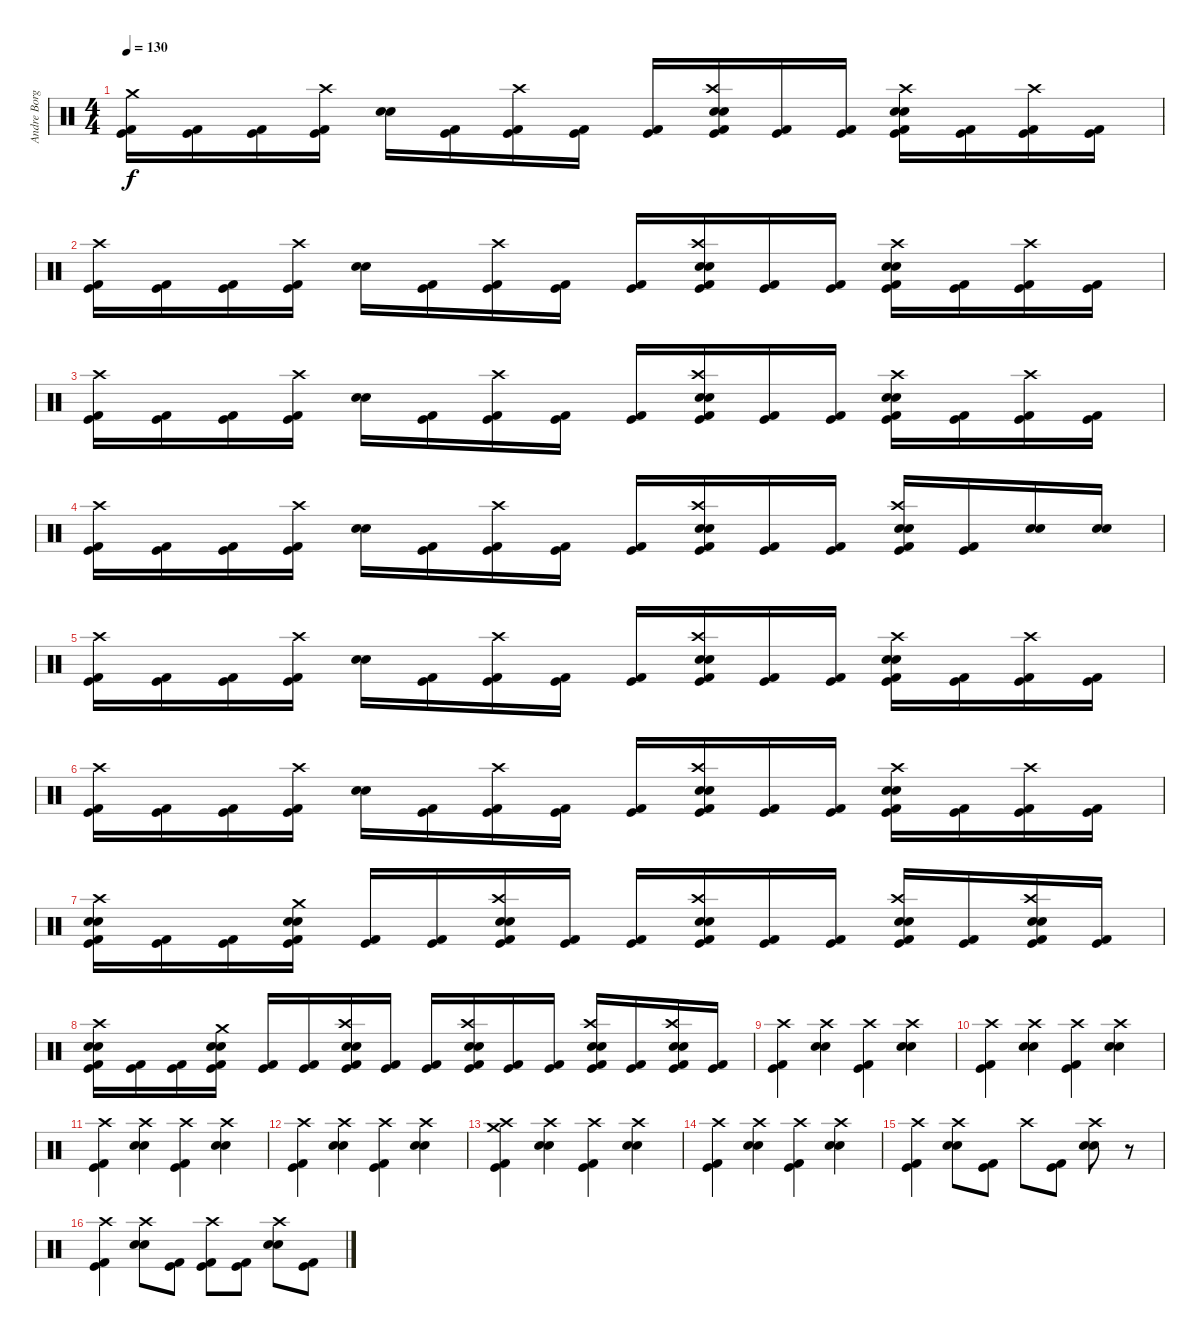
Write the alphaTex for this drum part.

\track ("Andre Borgman" "Andre Borg") {instrument percussion}
\staff {score}
\articulation defaults
\ts (4 4)
\tempo 130
\clef neutral
\ks c
("Crash medium (hit)" "Kick (hit)" "Kick (hit) 2").16{dy f} ("Kick (hit)" "Kick (hit) 2").16 ("Kick (hit)" "Kick (hit) 2").16 ("Crash high (hit)" "Kick (hit)" "Kick (hit) 2").16 ("Electric Snare (hit)" "Snare (hit) 2").16 ("Kick (hit)" "Kick (hit) 2").16 ("Crash high (hit)" "Kick (hit)" "Kick (hit) 2").16 ("Kick (hit)" "Kick (hit) 2").16 ("Kick (hit)" "Kick (hit) 2").16 ("Crash high (hit)" "Kick (hit)" "Kick (hit) 2" "Electric Snare (hit)" "Snare (hit) 2").16 ("Kick (hit)" "Kick (hit) 2").16 ("Kick (hit)" "Kick (hit) 2").16 ("Crash high (hit)" "Kick (hit)" "Kick (hit) 2" "Electric Snare (hit)" "Snare (hit) 2").16 ("Kick (hit)" "Kick (hit) 2").16 ("Crash high (hit)" "Kick (hit)" "Kick (hit) 2").16 ("Kick (hit)" "Kick (hit) 2").16 |
("Crash high (hit)" "Kick (hit)" "Kick (hit) 2").16 ("Kick (hit)" "Kick (hit) 2").16 ("Kick (hit)" "Kick (hit) 2").16 ("Crash high (hit)" "Kick (hit)" "Kick (hit) 2").16 ("Electric Snare (hit)" "Snare (hit) 2").16 ("Kick (hit)" "Kick (hit) 2").16 ("Crash high (hit)" "Kick (hit)" "Kick (hit) 2").16 ("Kick (hit)" "Kick (hit) 2").16 ("Kick (hit)" "Kick (hit) 2").16 ("Crash high (hit)" "Kick (hit)" "Kick (hit) 2" "Electric Snare (hit)" "Snare (hit) 2").16 ("Kick (hit)" "Kick (hit) 2").16 ("Kick (hit)" "Kick (hit) 2").16 ("Crash high (hit)" "Kick (hit)" "Kick (hit) 2" "Electric Snare (hit)" "Snare (hit) 2").16 ("Kick (hit)" "Kick (hit) 2").16 ("Crash high (hit)" "Kick (hit)" "Kick (hit) 2").16 ("Kick (hit)" "Kick (hit) 2").16 |
("Crash high (hit)" "Kick (hit)" "Kick (hit) 2").16 ("Kick (hit)" "Kick (hit) 2").16 ("Kick (hit)" "Kick (hit) 2").16 ("Crash high (hit)" "Kick (hit)" "Kick (hit) 2").16 ("Electric Snare (hit)" "Snare (hit) 2").16 ("Kick (hit)" "Kick (hit) 2").16 ("Crash high (hit)" "Kick (hit)" "Kick (hit) 2").16 ("Kick (hit)" "Kick (hit) 2").16 ("Kick (hit)" "Kick (hit) 2").16 ("Crash high (hit)" "Kick (hit)" "Kick (hit) 2" "Electric Snare (hit)" "Snare (hit) 2").16 ("Kick (hit)" "Kick (hit) 2").16 ("Kick (hit)" "Kick (hit) 2").16 ("Crash high (hit)" "Kick (hit)" "Kick (hit) 2" "Electric Snare (hit)" "Snare (hit) 2").16 ("Kick (hit)" "Kick (hit) 2").16 ("Crash high (hit)" "Kick (hit)" "Kick (hit) 2").16 ("Kick (hit)" "Kick (hit) 2").16 |
("Crash high (hit)" "Kick (hit)" "Kick (hit) 2").16 ("Kick (hit)" "Kick (hit) 2").16 ("Kick (hit)" "Kick (hit) 2").16 ("Crash high (hit)" "Kick (hit)" "Kick (hit) 2").16 ("Electric Snare (hit)" "Snare (hit) 2").16 ("Kick (hit)" "Kick (hit) 2").16 ("Crash high (hit)" "Kick (hit)" "Kick (hit) 2").16 ("Kick (hit)" "Kick (hit) 2").16 ("Kick (hit)" "Kick (hit) 2").16 ("Crash high (hit)" "Kick (hit)" "Kick (hit) 2" "Electric Snare (hit)" "Snare (hit) 2").16 ("Kick (hit)" "Kick (hit) 2").16 ("Kick (hit)" "Kick (hit) 2").16 ("Crash high (hit)" "Kick (hit)" "Kick (hit) 2" "Electric Snare (hit)" "Snare (hit) 2").16 ("Kick (hit)" "Kick (hit) 2").16 ("Electric Snare (hit)" "Snare (hit) 2").16 ("Electric Snare (hit)" "Snare (hit) 2").16 |
("Crash high (hit)" "Kick (hit)" "Kick (hit) 2").16 ("Kick (hit)" "Kick (hit) 2").16 ("Kick (hit)" "Kick (hit) 2").16 ("Crash high (hit)" "Kick (hit)" "Kick (hit) 2").16 ("Electric Snare (hit)" "Snare (hit) 2").16 ("Kick (hit)" "Kick (hit) 2").16 ("Crash high (hit)" "Kick (hit)" "Kick (hit) 2").16 ("Kick (hit)" "Kick (hit) 2").16 ("Kick (hit)" "Kick (hit) 2").16 ("Crash high (hit)" "Kick (hit)" "Kick (hit) 2" "Electric Snare (hit)" "Snare (hit) 2").16 ("Kick (hit)" "Kick (hit) 2").16 ("Kick (hit)" "Kick (hit) 2").16 ("Crash high (hit)" "Kick (hit)" "Kick (hit) 2" "Electric Snare (hit)" "Snare (hit) 2").16 ("Kick (hit)" "Kick (hit) 2").16 ("Crash high (hit)" "Kick (hit)" "Kick (hit) 2").16 ("Kick (hit)" "Kick (hit) 2").16 |
("Crash high (hit)" "Kick (hit)" "Kick (hit) 2").16 ("Kick (hit)" "Kick (hit) 2").16 ("Kick (hit)" "Kick (hit) 2").16 ("Crash high (hit)" "Kick (hit)" "Kick (hit) 2").16 ("Electric Snare (hit)" "Snare (hit) 2").16 ("Kick (hit)" "Kick (hit) 2").16 ("Crash high (hit)" "Kick (hit)" "Kick (hit) 2").16 ("Kick (hit)" "Kick (hit) 2").16 ("Kick (hit)" "Kick (hit) 2").16 ("Crash high (hit)" "Kick (hit)" "Kick (hit) 2" "Electric Snare (hit)" "Snare (hit) 2").16 ("Kick (hit)" "Kick (hit) 2").16 ("Kick (hit)" "Kick (hit) 2").16 ("Crash high (hit)" "Kick (hit)" "Kick (hit) 2" "Electric Snare (hit)" "Snare (hit) 2").16 ("Kick (hit)" "Kick (hit) 2").16 ("Crash high (hit)" "Kick (hit)" "Kick (hit) 2").16 ("Kick (hit)" "Kick (hit) 2").16 |
("Crash high (hit)" "Kick (hit)" "Kick (hit) 2" "Electric Snare (hit)" "Snare (hit) 2").16 ("Kick (hit)" "Kick (hit) 2").16 ("Kick (hit)" "Kick (hit) 2").16 ("Crash medium (hit)" "Kick (hit)" "Kick (hit) 2" "Electric Snare (hit)" "Snare (hit) 2").16 ("Kick (hit)" "Kick (hit) 2").16 ("Kick (hit)" "Kick (hit) 2").16 ("Crash high (hit)" "Kick (hit)" "Kick (hit) 2" "Electric Snare (hit)" "Snare (hit) 2").16 ("Kick (hit)" "Kick (hit) 2").16 ("Kick (hit)" "Kick (hit) 2").16 ("Crash high (hit)" "Kick (hit)" "Kick (hit) 2" "Electric Snare (hit)" "Snare (hit) 2").16 ("Kick (hit)" "Kick (hit) 2").16 ("Kick (hit)" "Kick (hit) 2").16 ("Crash high (hit)" "Kick (hit)" "Kick (hit) 2" "Electric Snare (hit)" "Snare (hit) 2").16 ("Kick (hit)" "Kick (hit) 2").16 ("Crash high (hit)" "Kick (hit)" "Kick (hit) 2" "Electric Snare (hit)" "Snare (hit) 2").16 ("Kick (hit)" "Kick (hit) 2").16 |
("Crash high (hit)" "Kick (hit)" "Kick (hit) 2" "Electric Snare (hit)" "Snare (hit) 2").16 ("Kick (hit)" "Kick (hit) 2").16 ("Kick (hit)" "Kick (hit) 2").16 ("Crash medium (hit)" "Kick (hit)" "Kick (hit) 2" "Electric Snare (hit)" "Snare (hit) 2").16 ("Kick (hit)" "Kick (hit) 2").16 ("Kick (hit)" "Kick (hit) 2").16 ("Crash high (hit)" "Kick (hit)" "Kick (hit) 2" "Electric Snare (hit)" "Snare (hit) 2").16 ("Kick (hit)" "Kick (hit) 2").16 ("Kick (hit)" "Kick (hit) 2").16 ("Crash high (hit)" "Kick (hit)" "Kick (hit) 2" "Electric Snare (hit)" "Snare (hit) 2").16 ("Kick (hit)" "Kick (hit) 2").16 ("Kick (hit)" "Kick (hit) 2").16 ("Crash high (hit)" "Kick (hit)" "Kick (hit) 2" "Electric Snare (hit)" "Snare (hit) 2").16 ("Kick (hit)" "Kick (hit) 2").16 ("Crash high (hit)" "Kick (hit)" "Kick (hit) 2" "Electric Snare (hit)" "Snare (hit) 2").16 ("Kick (hit)" "Kick (hit) 2").16 |
("Crash high (hit)" "Kick (hit)" "Kick (hit) 2").4 ("Crash high (hit)" "Electric Snare (hit)" "Snare (hit) 2").4 ("Crash high (hit)" "Kick (hit)" "Kick (hit) 2").4 ("Crash high (hit)" "Electric Snare (hit)" "Snare (hit) 2").4 |
("Crash high (hit)" "Kick (hit)" "Kick (hit) 2").4 ("Crash high (hit)" "Electric Snare (hit)" "Snare (hit) 2").4 ("Crash high (hit)" "Kick (hit)" "Kick (hit) 2").4 ("Crash high (hit)" "Electric Snare (hit)" "Snare (hit) 2").4 |
("Crash high (hit)" "Kick (hit)" "Kick (hit) 2").4 ("Crash high (hit)" "Electric Snare (hit)" "Snare (hit) 2").4 ("Crash high (hit)" "Kick (hit)" "Kick (hit) 2").4 ("Crash high (hit)" "Electric Snare (hit)" "Snare (hit) 2").4 |
("Crash high (hit)" "Kick (hit)" "Kick (hit) 2").4 ("Crash high (hit)" "Electric Snare (hit)" "Snare (hit) 2").4 ("Crash high (hit)" "Kick (hit)" "Kick (hit) 2").4 ("Crash high (hit)" "Electric Snare (hit)" "Snare (hit) 2").4 |
("Crash medium (hit)" "Crash high (hit)" "Kick (hit)" "Kick (hit) 2").4 ("Crash high (hit)" "Electric Snare (hit)" "Snare (hit) 2").4 ("Crash high (hit)" "Kick (hit)" "Kick (hit) 2").4 ("Crash high (hit)" "Electric Snare (hit)" "Snare (hit) 2").4 |
("Crash high (hit)" "Kick (hit)" "Kick (hit) 2").4 ("Crash high (hit)" "Electric Snare (hit)" "Snare (hit) 2").4 ("Crash high (hit)" "Kick (hit)" "Kick (hit) 2").4 ("Crash high (hit)" "Electric Snare (hit)" "Snare (hit) 2").4 |
("Crash high (hit)" "Kick (hit)" "Kick (hit) 2").4 ("Crash high (hit)" "Electric Snare (hit)" "Snare (hit) 2").8 ("Kick (hit)" "Kick (hit) 2").8 "Crash high (hit)".8 ("Kick (hit)" "Kick (hit) 2").8 ("Crash high (hit)" "Electric Snare (hit)" "Snare (hit) 2").8 r.8 |
("Crash high (hit)" "Kick (hit)" "Kick (hit) 2").4 ("Crash high (hit)" "Electric Snare (hit)" "Snare (hit) 2").8 ("Kick (hit)" "Kick (hit) 2").8 ("Crash high (hit)" "Kick (hit)" "Kick (hit) 2").8 ("Kick (hit)" "Kick (hit) 2").8 ("Crash high (hit)" "Electric Snare (hit)" "Snare (hit) 2").8 ("Kick (hit)" "Kick (hit) 2").8
